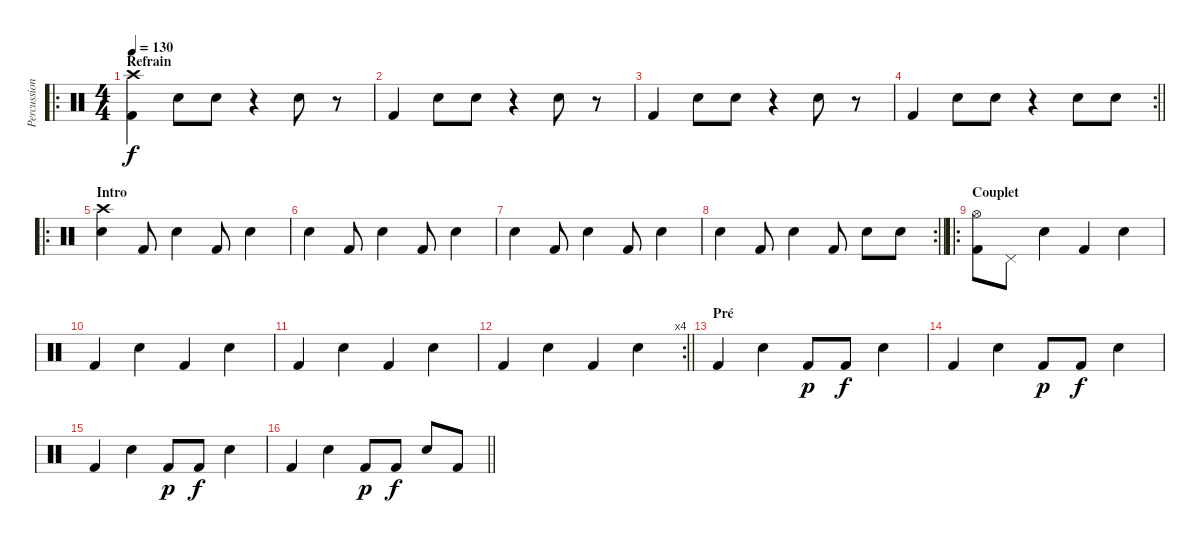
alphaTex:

\track ("Percussions" "Percussion") {instrument percussion}
\staff {score}
\articulation defaults
\ro
\ts (4 4)
\section ("" "Refrain")
\tempo 130
\clef neutral
\ks c
("Crash high (hit)" "Kick (hit) 2").4{dy f} "Snare (hit) 2".8 "Snare (hit) 2".8 r.4 "Snare (hit) 2".8 r.8 |
"Kick (hit) 2".4 "Snare (hit) 2".8 "Snare (hit) 2".8 r.4 "Snare (hit) 2".8 r.8 |
"Kick (hit) 2".4 "Snare (hit) 2".8 "Snare (hit) 2".8 r.4 "Snare (hit) 2".8 r.8 |
\rc 2
\barLineRight lightlight "Kick (hit) 2".4 "Snare (hit) 2".8 "Snare (hit) 2".8
r.4 "Snare (hit) 2".8 "Snare (hit) 2".8 |
\ro
\section ("" "Intro")
("Crash high (hit)" "Snare (hit) 2").4 "Kick (hit) 2".8 "Snare (hit) 2".4 "Kick (hit) 2".8 "Snare (hit) 2".4 |
"Snare (hit) 2".4 "Kick (hit) 2".8 "Snare (hit) 2".4 "Kick (hit) 2".8 "Snare (hit) 2".4 |
"Snare (hit) 2".4 "Kick (hit) 2".8 "Snare (hit) 2".4 "Kick (hit) 2".8 "Snare (hit) 2".4 |
\rc 2
\barLineRight lightlight "Snare (hit) 2".4 "Kick (hit) 2".8 "Snare (hit) 2".4 "Kick (hit) 2".8 "Snare (hit) 2".8 "Snare (hit) 2".8
|
\ro
\section ("" "Couplet")
("Hi-Hat (open)" "Kick (hit) 2").8 "Pedal Hi-Hat (hit)".8 "Snare (hit) 2".4 "Kick (hit) 2".4 "Snare (hit) 2".4 |
"Kick (hit) 2".4 "Snare (hit) 2".4 "Kick (hit) 2".4 "Snare (hit) 2".4 |
"Kick (hit) 2".4 "Snare (hit) 2".4 "Kick (hit) 2".4 "Snare (hit) 2".4 |
\rc 4
\barLineRight lightlight "Kick (hit) 2".4 "Snare (hit) 2".4 "Kick (hit) 2".4 "Snare (hit) 2".4
|
\section ("" "Pré")
"Kick (hit) 2".4 "Electric Snare (hit)".4 "Kick (hit) 2".8{dy p} "Kick (hit) 2".8{dy f} "Electric Snare (hit)".4 |
"Kick (hit) 2".4 "Electric Snare (hit)".4 "Kick (hit) 2".8{dy p} "Kick (hit) 2".8{dy f} "Electric Snare (hit)".4 |
"Kick (hit) 2".4 "Electric Snare (hit)".4 "Kick (hit) 2".8{dy p} "Kick (hit) 2".8{dy f} "Electric Snare (hit)".4 |
\barLineRight lightlight "Kick (hit) 2".4 "Electric Snare (hit)".4 "Kick (hit) 2".8{dy p} "Kick (hit) 2".8{dy f} "Electric Snare (hit)".8 "Kick (hit) 2".8
